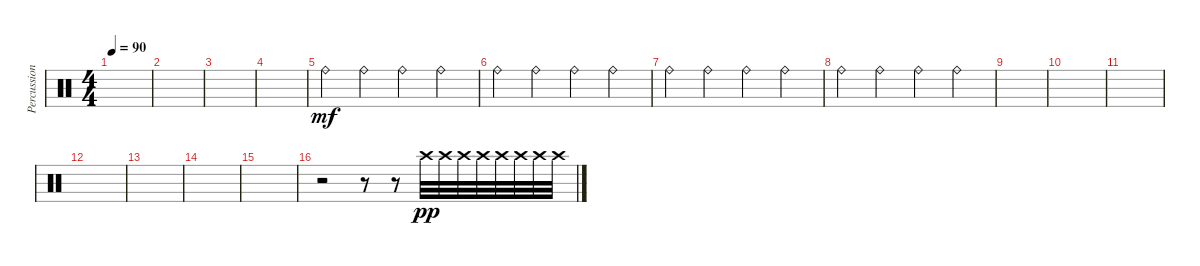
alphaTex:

\track ("Percussion" "Percussion") {instrument percussion}
\staff {score}
\articulation defaults
\ts (4 4)
\tempo 90
\clef neutral
\ks c
|
|
|
|
"Ride (bell)".4{dy mf} "Ride (bell)".4 "Ride (bell)".4 "Ride (bell)".4 |
"Ride (bell)".4 "Ride (bell)".4 "Ride (bell)".4 "Ride (bell)".4 |
"Ride (bell)".4 "Ride (bell)".4 "Ride (bell)".4 "Ride (bell)".4 |
"Ride (bell)".4 "Ride (bell)".4 "Ride (bell)".4 "Ride (bell)".4 |
|
|
|
|
|
|
|
r.2 r.8 r.8 "Crash high (hit)".32{dy pp} "Crash high (hit)".32 "Crash high (hit)".32 "Crash high (hit)".32 "Crash high (hit)".32 "Crash high (hit)".32 "Crash high (hit)".32 "Crash high (hit)".32
